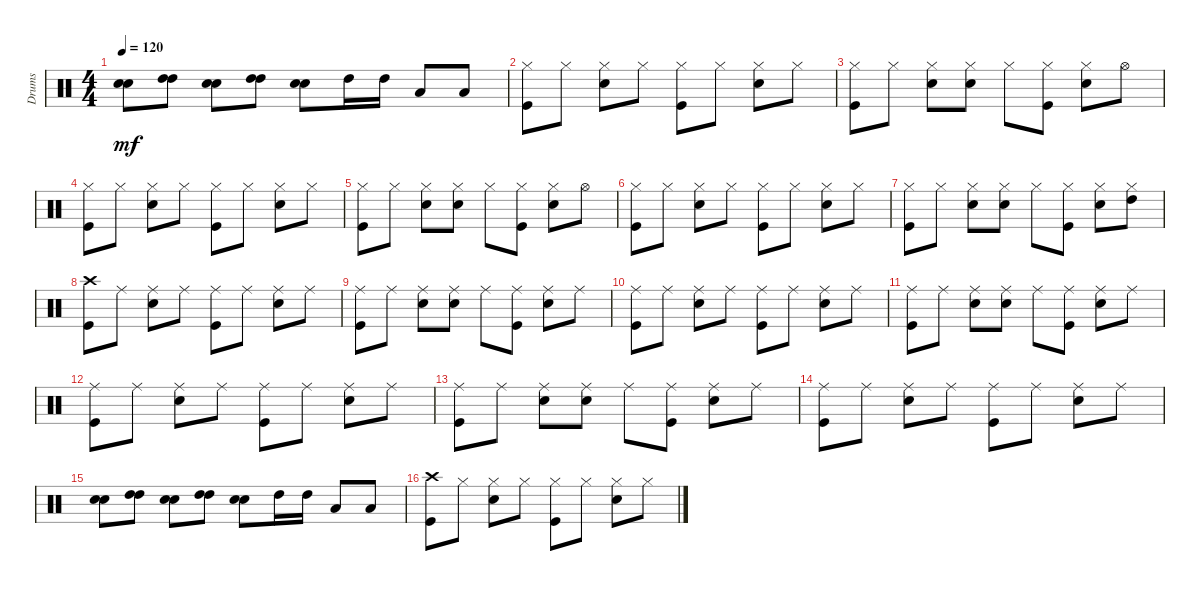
\track ("Drums" "Drums") {instrument percussion}
\staff {score}
\articulation defaults
\ts (4 4)
\tempo 120
\clef neutral
\ks c
("Snare (hit) 2" "Snare (hit) 2").8{dy mf} ("High Tom (hit)" "High Tom (hit)").8 ("Snare (hit) 2" "Snare (hit) 2").8 ("High Tom (hit)" "High Tom (hit)").8 ("Snare (hit) 2" "Snare (hit) 2").8 "High Tom (hit)".16 "High Tom (hit)".16 "Low Tom (hit)".8 "Low Floor Tom (hit)".8 |
("Kick (hit)" "Hi-Hat (closed)").8 "Hi-Hat (closed)".8 ("Snare (hit) 2" "Hi-Hat (closed)").8 "Hi-Hat (closed)".8 ("Kick (hit)" "Hi-Hat (closed)").8 "Hi-Hat (closed)".8 ("Snare (hit) 2" "Hi-Hat (closed)").8 "Hi-Hat (closed)".8 |
("Kick (hit)" "Hi-Hat (closed)").8 "Hi-Hat (closed)".8 ("Snare (hit) 2" "Hi-Hat (closed)").8 ("Snare (hit) 2" "Hi-Hat (closed)").8 "Hi-Hat (closed)".8 ("Kick (hit)" "Hi-Hat (closed)").8 ("Snare (hit) 2" "Hi-Hat (closed)").8 "Hi-Hat (open)".8 |
("Kick (hit)" "Hi-Hat (closed)").8 "Hi-Hat (closed)".8 ("Snare (hit) 2" "Hi-Hat (closed)").8 "Hi-Hat (closed)".8 ("Kick (hit)" "Hi-Hat (closed)").8 "Hi-Hat (closed)".8 ("Snare (hit) 2" "Hi-Hat (closed)").8 "Hi-Hat (closed)".8 |
("Kick (hit)" "Hi-Hat (closed)").8 "Hi-Hat (closed)".8 ("Snare (hit) 2" "Hi-Hat (closed)").8 ("Snare (hit) 2" "Hi-Hat (closed)").8 "Hi-Hat (closed)".8 ("Kick (hit)" "Hi-Hat (closed)").8 ("Snare (hit) 2" "Hi-Hat (closed)").8 "Hi-Hat (open)".8 |
("Kick (hit)" "Hi-Hat (closed)").8 "Hi-Hat (closed)".8 ("Snare (hit) 2" "Hi-Hat (closed)").8 "Hi-Hat (closed)".8 ("Kick (hit)" "Hi-Hat (closed)").8 "Hi-Hat (closed)".8 ("Snare (hit) 2" "Hi-Hat (closed)").8 "Hi-Hat (closed)".8 |
("Kick (hit)" "Hi-Hat (closed)").8 "Hi-Hat (closed)".8 ("Snare (hit) 2" "Hi-Hat (closed)").8 ("Snare (hit) 2" "Hi-Hat (closed)").8 "Hi-Hat (closed)".8 ("Kick (hit)" "Hi-Hat (closed)").8 ("Snare (hit) 2" "Hi-Hat (closed)").8 ("High Tom (hit)" "Hi-Hat (closed)").8 |
("Crash high (hit)" "Kick (hit)").8 "Ride (middle)".8 ("Snare (hit) 2" "Ride (middle)").8 "Ride (middle)".8 ("Ride (middle)" "Kick (hit)").8 "Ride (middle)".8 ("Snare (hit) 2" "Ride (middle)").8 "Ride (middle)".8 |
("Ride (middle)" "Kick (hit)").8 "Ride (middle)".8 ("Snare (hit) 2" "Ride (middle)").8 ("Snare (hit) 2" "Ride (middle)").8 "Ride (middle)".8 ("Ride (middle)" "Kick (hit)").8 ("Snare (hit) 2" "Ride (middle)").8 "Ride (middle)".8 |
("Kick (hit)" "Ride (middle)").8 "Ride (middle)".8 ("Snare (hit) 2" "Ride (middle)").8 "Ride (middle)".8 ("Kick (hit)" "Ride (middle)").8 "Ride (middle)".8 ("Snare (hit) 2" "Ride (middle)").8 "Ride (middle)".8 |
("Kick (hit)" "Ride (middle)").8 "Ride (middle)".8 ("Snare (hit) 2" "Ride (middle)").8 ("Snare (hit) 2" "Ride (middle)").8 "Ride (middle)".8 ("Kick (hit)" "Ride (middle)").8 ("Snare (hit) 2" "Ride (middle)").8 "Ride (middle)".8 |
("Kick (hit)" "Ride (middle)").8 "Ride (middle)".8 ("Snare (hit) 2" "Ride (middle)").8 "Ride (middle)".8 ("Kick (hit)" "Ride (middle)").8 "Ride (middle)".8 ("Snare (hit) 2" "Ride (middle)").8 "Ride (middle)".8 |
("Kick (hit)" "Ride (middle)").8 "Ride (middle)".8 ("Snare (hit) 2" "Ride (middle)").8 ("Snare (hit) 2" "Ride (middle)").8 "Ride (middle)".8 ("Kick (hit)" "Ride (middle)").8 ("Snare (hit) 2" "Ride (middle)").8 "Ride (middle)".8 |
("Ride (middle)" "Kick (hit)").8 "Ride (middle)".8 ("Snare (hit) 2" "Ride (middle)").8 "Ride (middle)".8 ("Ride (middle)" "Kick (hit)").8 "Ride (middle)".8 ("Snare (hit) 2" "Ride (middle)").8 "Ride (middle)".8 |
("Snare (hit) 2" "Snare (hit) 2").8 ("High Tom (hit)" "High Tom (hit)").8 ("Snare (hit) 2" "Snare (hit) 2").8 ("High Tom (hit)" "High Tom (hit)").8 ("Snare (hit) 2" "Snare (hit) 2").8 "High Tom (hit)".16 "High Tom (hit)".16 "Low Tom (hit)".8 "Low Floor Tom (hit)".8 |
("Kick (hit)" "Crash high (hit)").8 "Hi-Hat (closed)".8 ("Snare (hit) 2" "Hi-Hat (closed)").8 "Hi-Hat (closed)".8 ("Kick (hit)" "Hi-Hat (closed)").8 "Hi-Hat (closed)".8 ("Snare (hit) 2" "Hi-Hat (closed)").8 "Hi-Hat (closed)".8
